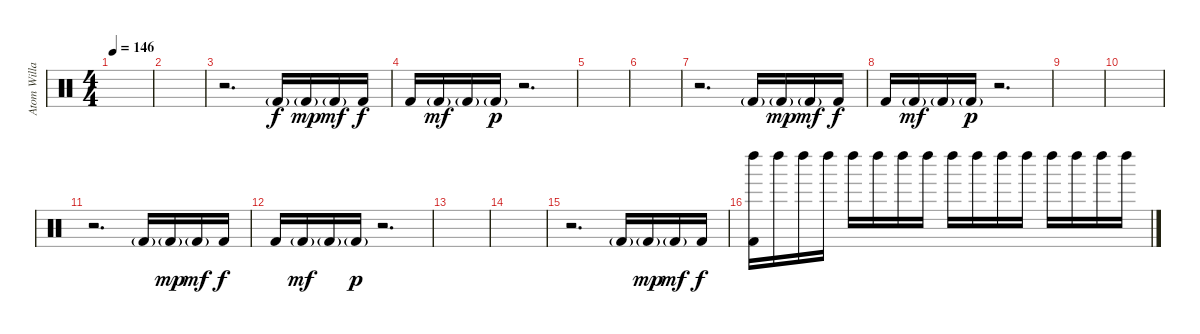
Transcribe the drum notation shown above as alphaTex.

\track ("Atom Willard" "Atom Willa") {instrument percussion}
\staff {score}
\articulation defaults
\ts (4 4)
\tempo 146
\clef neutral
\ks c
|
|
r.2{d} "Kick (hit) 2"{g}.16 "Kick (hit) 2"{g}.16{dy mp} "Kick (hit) 2"{g}.16{dy mf} "Kick (hit) 2".16{dy f} |
"Kick (hit) 2".16 "Kick (hit) 2"{g}.16{dy mf} "Kick (hit) 2"{g}.16 "Kick (hit) 2"{g}.16{dy p} r.2{d} |
|
|
r.2{d} "Kick (hit) 2"{g}.16 "Kick (hit) 2"{g}.16{dy mp} "Kick (hit) 2"{g}.16{dy mf} "Kick (hit) 2".16{dy f} |
"Kick (hit) 2".16 "Kick (hit) 2"{g}.16{dy mf} "Kick (hit) 2"{g}.16 "Kick (hit) 2"{g}.16{dy p} r.2{d} |
|
|
r.2{d} "Kick (hit) 2"{g}.16 "Kick (hit) 2"{g}.16{dy mp} "Kick (hit) 2"{g}.16{dy mf} "Kick (hit) 2".16{dy f} |
"Kick (hit) 2".16 "Kick (hit) 2"{g}.16{dy mf} "Kick (hit) 2"{g}.16 "Kick (hit) 2"{g}.16{dy p} r.2{d} |
|
|
r.2{d} "Kick (hit) 2"{g}.16 "Kick (hit) 2"{g}.16{dy mp} "Kick (hit) 2"{g}.16{dy mf} "Kick (hit) 2".16{dy f} |
("Left Maraca (hit)" "Kick (hit) 2").16 "Left Maraca (hit)".16 "Left Maraca (hit)".16 "Left Maraca (hit)".16 "Left Maraca (hit)".16 "Left Maraca (hit)".16 "Left Maraca (hit)".16 "Left Maraca (hit)".16 "Left Maraca (hit)".16 "Left Maraca (hit)".16 "Left Maraca (hit)".16 "Left Maraca (hit)".16 "Left Maraca (hit)".16 "Left Maraca (hit)".16 "Left Maraca (hit)".16 "Left Maraca (hit)".16
